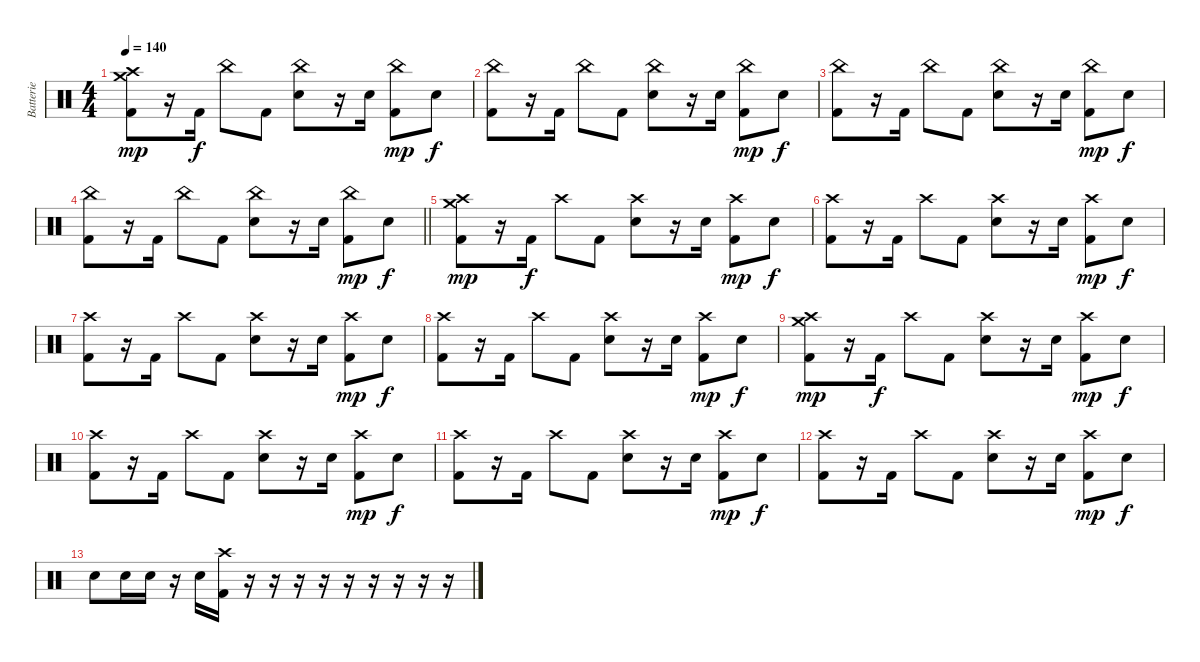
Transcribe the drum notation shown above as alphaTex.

\track ("Batterie" "Batterie") {instrument percussion}
\staff {score}
\articulation defaults
\ts (4 4)
\tempo 140
\clef neutral
\ks c
("Kick (hit) 2" "Crash medium (hit)" "Crash high (hit)").8{dy mp} r.16 "Kick (hit) 2".16{dy f} "China (hit)".8 "Kick (hit) 2".8 ("Electric Snare (hit)" "China (hit)").8 r.16 "Electric Snare (hit)".16 ("Kick (hit) 2" "China (hit)").8{dy mp} "Electric Snare (hit)".8{dy f} |
("Kick (hit) 2" "China (hit)").8 r.16 "Kick (hit) 2".16 "China (hit)".8 "Kick (hit) 2".8 ("Electric Snare (hit)" "China (hit)").8 r.16 "Electric Snare (hit)".16 ("Kick (hit) 2" "China (hit)").8{dy mp} "Electric Snare (hit)".8{dy f} |
("Kick (hit) 2" "China (hit)").8 r.16 "Kick (hit) 2".16 "China (hit)".8 "Kick (hit) 2".8 ("Electric Snare (hit)" "China (hit)").8 r.16 "Electric Snare (hit)".16 ("Kick (hit) 2" "China (hit)").8{dy mp} "Electric Snare (hit)".8{dy f} |
\barLineRight lightlight
("Kick (hit) 2" "China (hit)").8 r.16 "Kick (hit) 2".16 "China (hit)".8 "Kick (hit) 2".8 ("Electric Snare (hit)" "China (hit)").8 r.16 "Electric Snare (hit)".16 ("Kick (hit) 2" "China (hit)").8{dy mp} "Electric Snare (hit)".8{dy f} |
("Kick (hit) 2" "Crash medium (hit)" "Crash high (hit)").8{dy mp} r.16 "Kick (hit) 2".16{dy f} "Crash high (hit)".8 "Kick (hit) 2".8 ("Electric Snare (hit)" "Crash high (hit)").8 r.16 "Electric Snare (hit)".16 ("Kick (hit) 2" "Crash high (hit)").8{dy mp} "Electric Snare (hit)".8{dy f} |
("Kick (hit) 2" "Crash high (hit)").8 r.16 "Kick (hit) 2".16 "Crash high (hit)".8 "Kick (hit) 2".8 ("Electric Snare (hit)" "Crash high (hit)").8 r.16 "Electric Snare (hit)".16 ("Kick (hit) 2" "Crash high (hit)").8{dy mp} "Electric Snare (hit)".8{dy f} |
("Kick (hit) 2" "Crash high (hit)").8 r.16 "Kick (hit) 2".16 "Crash high (hit)".8 "Kick (hit) 2".8 ("Electric Snare (hit)" "Crash high (hit)").8 r.16 "Electric Snare (hit)".16 ("Kick (hit) 2" "Crash high (hit)").8{dy mp} "Electric Snare (hit)".8{dy f} |
("Kick (hit) 2" "Crash high (hit)").8 r.16 "Kick (hit) 2".16 "Crash high (hit)".8 "Kick (hit) 2".8 ("Electric Snare (hit)" "Crash high (hit)").8 r.16 "Electric Snare (hit)".16 ("Kick (hit) 2" "Crash high (hit)").8{dy mp} "Electric Snare (hit)".8{dy f} |
("Kick (hit) 2" "Crash medium (hit)" "Crash high (hit)").8{dy mp} r.16 "Kick (hit) 2".16{dy f} "Crash high (hit)".8 "Kick (hit) 2".8 ("Electric Snare (hit)" "Crash high (hit)").8 r.16 "Electric Snare (hit)".16 ("Kick (hit) 2" "Crash high (hit)").8{dy mp} "Electric Snare (hit)".8{dy f} |
("Kick (hit) 2" "Crash high (hit)").8 r.16 "Kick (hit) 2".16 "Crash high (hit)".8 "Kick (hit) 2".8 ("Electric Snare (hit)" "Crash high (hit)").8 r.16 "Electric Snare (hit)".16 ("Kick (hit) 2" "Crash high (hit)").8{dy mp} "Electric Snare (hit)".8{dy f} |
("Kick (hit) 2" "Crash high (hit)").8 r.16 "Kick (hit) 2".16 "Crash high (hit)".8 "Kick (hit) 2".8 ("Electric Snare (hit)" "Crash high (hit)").8 r.16 "Electric Snare (hit)".16 ("Kick (hit) 2" "Crash high (hit)").8{dy mp} "Electric Snare (hit)".8{dy f} |
("Kick (hit) 2" "Crash high (hit)").8 r.16 "Kick (hit) 2".16 "Crash high (hit)".8 "Kick (hit) 2".8 ("Electric Snare (hit)" "Crash high (hit)").8 r.16 "Electric Snare (hit)".16 ("Kick (hit) 2" "Crash high (hit)").8{dy mp} "Electric Snare (hit)".8{dy f} |
"Electric Snare (hit)".8 "Electric Snare (hit)".16 "Electric Snare (hit)".16 r.16 "Electric Snare (hit)".16 ("Kick (hit) 2" "Crash high (hit)").16 r.16 r.16 r.16 r.16 r.16 r.16 r.16 r.16 r.16
